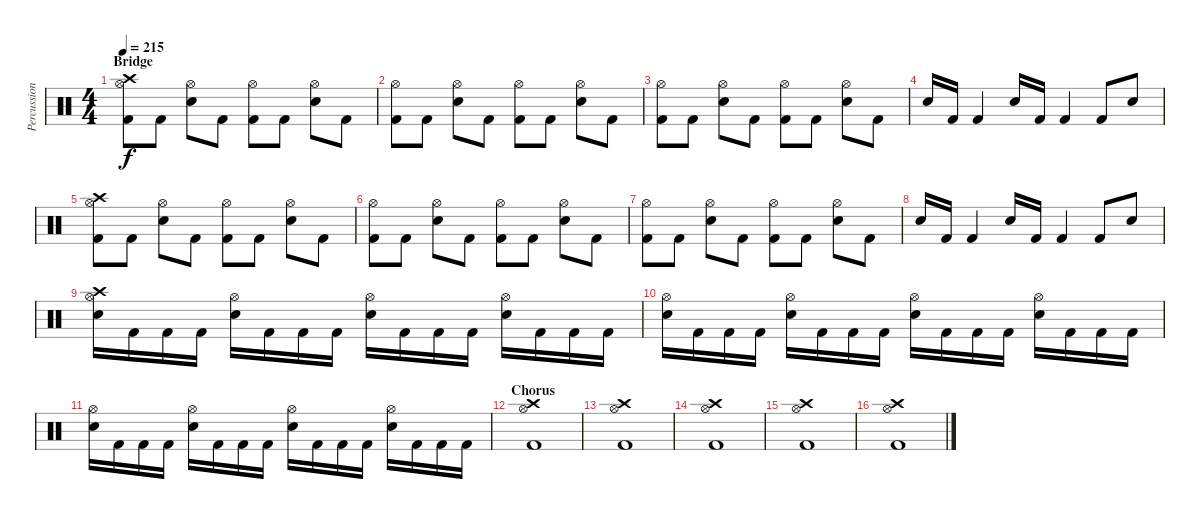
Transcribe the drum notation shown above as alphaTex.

\track ("Percussions" "Percussion") {instrument percussion}
\staff {score}
\articulation defaults
\ts (4 4)
\section ("" "Bridge")
\tempo 215
\clef neutral
\ks c
("Crash high (hit)" "Hi-Hat (open)" "Kick (hit) 2").8{dy f} "Kick (hit) 2".8 ("Hi-Hat (open)" "Electric Snare (hit)").8 "Kick (hit) 2".8 ("Hi-Hat (open)" "Kick (hit) 2").8 "Kick (hit) 2".8 ("Hi-Hat (open)" "Electric Snare (hit)").8 "Kick (hit) 2".8 |
("Hi-Hat (open)" "Kick (hit) 2").8 "Kick (hit) 2".8 ("Hi-Hat (open)" "Electric Snare (hit)").8 "Kick (hit) 2".8 ("Hi-Hat (open)" "Kick (hit) 2").8 "Kick (hit) 2".8 ("Hi-Hat (open)" "Electric Snare (hit)").8 "Kick (hit) 2".8 |
("Hi-Hat (open)" "Kick (hit) 2").8 "Kick (hit) 2".8 ("Hi-Hat (open)" "Electric Snare (hit)").8 "Kick (hit) 2".8 ("Hi-Hat (open)" "Kick (hit) 2").8 "Kick (hit) 2".8 ("Hi-Hat (open)" "Electric Snare (hit)").8 "Kick (hit) 2".8 |
"Electric Snare (hit)".16 "Kick (hit) 2".16 "Kick (hit) 2".4 "Electric Snare (hit)".16 "Kick (hit) 2".16 "Kick (hit) 2".4 "Kick (hit) 2".8 "Electric Snare (hit)".8 |
("Crash high (hit)" "Hi-Hat (open)" "Kick (hit) 2").8 "Kick (hit) 2".8 ("Hi-Hat (open)" "Electric Snare (hit)").8 "Kick (hit) 2".8 ("Hi-Hat (open)" "Kick (hit) 2").8 "Kick (hit) 2".8 ("Hi-Hat (open)" "Electric Snare (hit)").8 "Kick (hit) 2".8 |
("Hi-Hat (open)" "Kick (hit) 2").8 "Kick (hit) 2".8 ("Hi-Hat (open)" "Electric Snare (hit)").8 "Kick (hit) 2".8 ("Hi-Hat (open)" "Kick (hit) 2").8 "Kick (hit) 2".8 ("Hi-Hat (open)" "Electric Snare (hit)").8 "Kick (hit) 2".8 |
("Hi-Hat (open)" "Kick (hit) 2").8 "Kick (hit) 2".8 ("Hi-Hat (open)" "Electric Snare (hit)").8 "Kick (hit) 2".8 ("Hi-Hat (open)" "Kick (hit) 2").8 "Kick (hit) 2".8 ("Hi-Hat (open)" "Electric Snare (hit)").8 "Kick (hit) 2".8 |
"Electric Snare (hit)".16 "Kick (hit) 2".16 "Kick (hit) 2".4 "Electric Snare (hit)".16 "Kick (hit) 2".16 "Kick (hit) 2".4 "Kick (hit) 2".8 "Electric Snare (hit)".8 |
("Crash high (hit)" "Hi-Hat (open)" "Electric Snare (hit)").16 "Kick (hit) 2".16 "Kick (hit) 2".16 "Kick (hit) 2".16 ("Hi-Hat (open)" "Electric Snare (hit)").16 "Kick (hit) 2".16 "Kick (hit) 2".16 "Kick (hit) 2".16 ("Hi-Hat (open)" "Electric Snare (hit)").16 "Kick (hit) 2".16 "Kick (hit) 2".16 "Kick (hit) 2".16 ("Hi-Hat (open)" "Electric Snare (hit)").16 "Kick (hit) 2".16 "Kick (hit) 2".16 "Kick (hit) 2".16 |
("Hi-Hat (open)" "Electric Snare (hit)").16 "Kick (hit) 2".16 "Kick (hit) 2".16 "Kick (hit) 2".16 ("Hi-Hat (open)" "Electric Snare (hit)").16 "Kick (hit) 2".16 "Kick (hit) 2".16 "Kick (hit) 2".16 ("Hi-Hat (open)" "Electric Snare (hit)").16 "Kick (hit) 2".16 "Kick (hit) 2".16 "Kick (hit) 2".16 ("Hi-Hat (open)" "Electric Snare (hit)").16 "Kick (hit) 2".16 "Kick (hit) 2".16 "Kick (hit) 2".16 |
("Hi-Hat (open)" "Electric Snare (hit)").16 "Kick (hit) 2".16 "Kick (hit) 2".16 "Kick (hit) 2".16 ("Hi-Hat (open)" "Electric Snare (hit)").16 "Kick (hit) 2".16 "Kick (hit) 2".16 "Kick (hit) 2".16 ("Hi-Hat (open)" "Electric Snare (hit)").16 "Kick (hit) 2".16 "Kick (hit) 2".16 "Kick (hit) 2".16 ("Hi-Hat (open)" "Electric Snare (hit)").16 "Kick (hit) 2".16 "Kick (hit) 2".16 "Kick (hit) 2".16 |
\section ("" "Chorus")
("Crash high (hit)" "Hi-Hat (open)" "Kick (hit) 2").1 |
("Crash high (hit)" "Hi-Hat (open)" "Kick (hit) 2").1 |
("Crash high (hit)" "Hi-Hat (open)" "Kick (hit) 2").1 |
("Crash high (hit)" "Hi-Hat (open)" "Kick (hit) 2").1 |
("Crash high (hit)" "Hi-Hat (open)" "Kick (hit) 2").1
